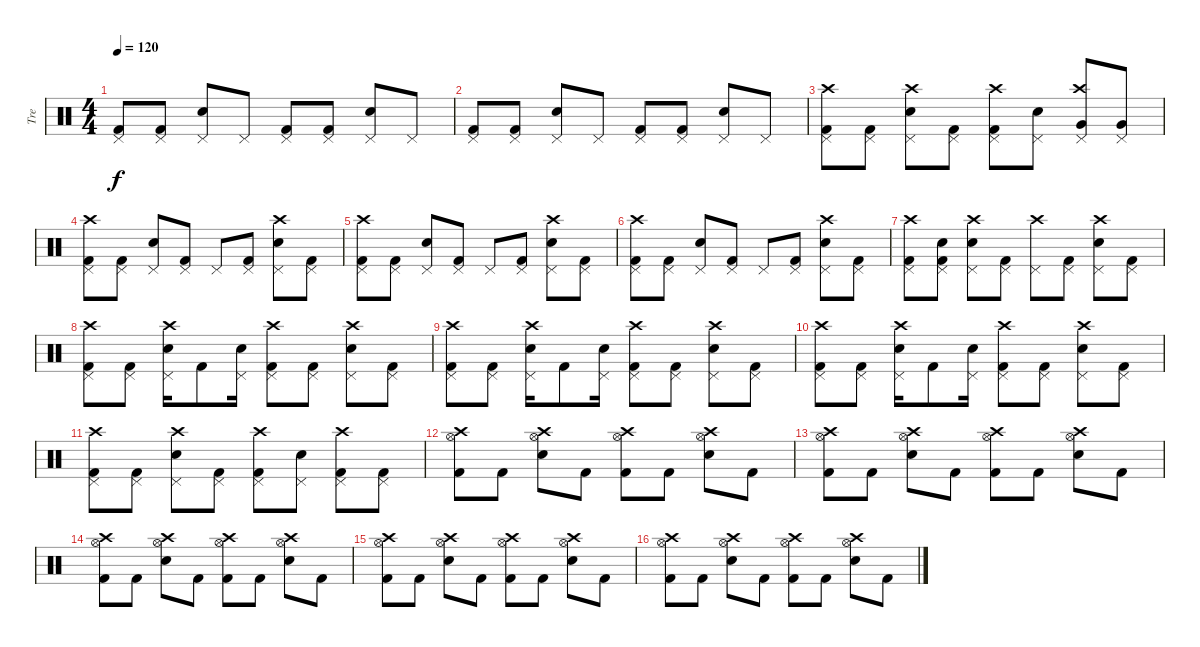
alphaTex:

\track ("Tre" "Tre") {instrument percussion}
\staff {score}
\articulation defaults
\ts (4 4)
\tempo 120
\clef neutral
\ks c
("Pedal Hi-Hat (hit)" "Kick (hit) 2").8{dy f} ("Pedal Hi-Hat (hit)" "Kick (hit) 2").8 ("Pedal Hi-Hat (hit)" "Electric Snare (hit)").8 "Pedal Hi-Hat (hit)".8 ("Pedal Hi-Hat (hit)" "Kick (hit) 2").8 ("Pedal Hi-Hat (hit)" "Kick (hit) 2").8 ("Pedal Hi-Hat (hit)" "Electric Snare (hit)").8 "Pedal Hi-Hat (hit)".8 |
("Pedal Hi-Hat (hit)" "Kick (hit) 2").8 ("Pedal Hi-Hat (hit)" "Kick (hit) 2").8 ("Pedal Hi-Hat (hit)" "Electric Snare (hit)").8 "Pedal Hi-Hat (hit)".8 ("Pedal Hi-Hat (hit)" "Kick (hit) 2").8 ("Pedal Hi-Hat (hit)" "Kick (hit) 2").8 ("Pedal Hi-Hat (hit)" "Electric Snare (hit)").8 "Pedal Hi-Hat (hit)".8 |
("Pedal Hi-Hat (hit)" "Kick (hit) 2" "Crash high (hit)").8 ("Pedal Hi-Hat (hit)" "Kick (hit) 2").8 ("Pedal Hi-Hat (hit)" "Electric Snare (hit)" "Crash high (hit)").8 ("Pedal Hi-Hat (hit)" "Kick (hit) 2").8 ("Pedal Hi-Hat (hit)" "Kick (hit) 2" "Crash high (hit)").8 ("Pedal Hi-Hat (hit)" "Electric Snare (hit)").8 ("Pedal Hi-Hat (hit)" "Very Low Tom (hit)" "Crash high (hit)").8 ("Pedal Hi-Hat (hit)" "Very Low Tom (hit)").8 |
("Pedal Hi-Hat (hit)" "Kick (hit) 2" "Crash high (hit)").8 ("Pedal Hi-Hat (hit)" "Kick (hit) 2").8 ("Pedal Hi-Hat (hit)" "Electric Snare (hit)").8 ("Pedal Hi-Hat (hit)" "Kick (hit) 2").8 "Pedal Hi-Hat (hit)".8 ("Pedal Hi-Hat (hit)" "Kick (hit) 2").8 ("Pedal Hi-Hat (hit)" "Electric Snare (hit)" "Crash high (hit)").8 ("Pedal Hi-Hat (hit)" "Kick (hit) 2").8 |
("Pedal Hi-Hat (hit)" "Kick (hit) 2" "Crash high (hit)").8 ("Pedal Hi-Hat (hit)" "Kick (hit) 2").8 ("Pedal Hi-Hat (hit)" "Electric Snare (hit)").8 ("Pedal Hi-Hat (hit)" "Kick (hit) 2").8 "Pedal Hi-Hat (hit)".8 ("Pedal Hi-Hat (hit)" "Kick (hit) 2").8 ("Pedal Hi-Hat (hit)" "Electric Snare (hit)" "Crash high (hit)").8 ("Pedal Hi-Hat (hit)" "Kick (hit) 2").8 |
("Pedal Hi-Hat (hit)" "Kick (hit) 2" "Crash high (hit)").8 ("Pedal Hi-Hat (hit)" "Kick (hit) 2").8 ("Pedal Hi-Hat (hit)" "Electric Snare (hit)").8 ("Pedal Hi-Hat (hit)" "Kick (hit) 2").8 "Pedal Hi-Hat (hit)".8 ("Pedal Hi-Hat (hit)" "Kick (hit) 2").8 ("Pedal Hi-Hat (hit)" "Electric Snare (hit)" "Crash high (hit)").8 ("Pedal Hi-Hat (hit)" "Kick (hit) 2").8 |
("Pedal Hi-Hat (hit)" "Kick (hit) 2" "Crash high (hit)").8 ("Pedal Hi-Hat (hit)" "Kick (hit) 2" "Snare (hit)").8 ("Pedal Hi-Hat (hit)" "Electric Snare (hit)" "Crash high (hit)").8 ("Pedal Hi-Hat (hit)" "Kick (hit) 2").8 ("Pedal Hi-Hat (hit)" "Crash high (hit)").8 ("Pedal Hi-Hat (hit)" "Kick (hit) 2").8 ("Pedal Hi-Hat (hit)" "Electric Snare (hit)" "Crash high (hit)").8 ("Pedal Hi-Hat (hit)" "Kick (hit) 2").8 |
("Pedal Hi-Hat (hit)" "Kick (hit) 2" "Crash high (hit)").8 ("Pedal Hi-Hat (hit)" "Kick (hit) 2").8 ("Pedal Hi-Hat (hit)" "Electric Snare (hit)" "Crash high (hit)").16 "Kick (hit) 2".8 ("Pedal Hi-Hat (hit)" "Electric Snare (hit)").16 ("Pedal Hi-Hat (hit)" "Kick (hit) 2" "Crash high (hit)").8 ("Pedal Hi-Hat (hit)" "Kick (hit) 2").8 ("Pedal Hi-Hat (hit)" "Electric Snare (hit)" "Crash high (hit)").8 ("Pedal Hi-Hat (hit)" "Kick (hit) 2").8 |
("Pedal Hi-Hat (hit)" "Kick (hit) 2" "Crash high (hit)").8 ("Pedal Hi-Hat (hit)" "Kick (hit) 2").8 ("Pedal Hi-Hat (hit)" "Electric Snare (hit)" "Crash high (hit)").16 "Kick (hit) 2".8 ("Pedal Hi-Hat (hit)" "Electric Snare (hit)").16 ("Pedal Hi-Hat (hit)" "Kick (hit) 2" "Crash high (hit)").8 ("Pedal Hi-Hat (hit)" "Kick (hit) 2").8 ("Pedal Hi-Hat (hit)" "Electric Snare (hit)" "Crash high (hit)").8 ("Pedal Hi-Hat (hit)" "Kick (hit) 2").8 |
("Pedal Hi-Hat (hit)" "Kick (hit) 2" "Crash high (hit)").8 ("Pedal Hi-Hat (hit)" "Kick (hit) 2").8 ("Pedal Hi-Hat (hit)" "Electric Snare (hit)" "Crash high (hit)").16 "Kick (hit) 2".8 ("Pedal Hi-Hat (hit)" "Electric Snare (hit)").16 ("Pedal Hi-Hat (hit)" "Kick (hit) 2" "Crash high (hit)").8 ("Pedal Hi-Hat (hit)" "Kick (hit) 2").8 ("Pedal Hi-Hat (hit)" "Electric Snare (hit)" "Crash high (hit)").8 ("Pedal Hi-Hat (hit)" "Kick (hit) 2").8 |
("Pedal Hi-Hat (hit)" "Kick (hit) 2" "Crash high (hit)").8 ("Pedal Hi-Hat (hit)" "Kick (hit) 2").8 ("Pedal Hi-Hat (hit)" "Electric Snare (hit)" "Crash high (hit)").8 ("Pedal Hi-Hat (hit)" "Kick (hit) 2").8 ("Pedal Hi-Hat (hit)" "Kick (hit) 2" "Crash high (hit)").8 ("Pedal Hi-Hat (hit)" "Electric Snare (hit)").8 ("Pedal Hi-Hat (hit)" "Kick (hit) 2" "Crash high (hit)").8 ("Pedal Hi-Hat (hit)" "Kick (hit) 2").8 |
("Crash high (hit)" "Kick (hit) 2" "Hi-Hat (open)").8 "Kick (hit) 2".8 ("Crash high (hit)" "Electric Snare (hit)" "Hi-Hat (open)").8 "Kick (hit) 2".8 ("Crash high (hit)" "Kick (hit) 2" "Hi-Hat (open)").8 "Kick (hit) 2".8 ("Crash high (hit)" "Electric Snare (hit)" "Hi-Hat (open)").8 "Kick (hit) 2".8 |
("Crash high (hit)" "Kick (hit) 2" "Hi-Hat (open)").8 "Kick (hit) 2".8 ("Crash high (hit)" "Electric Snare (hit)" "Hi-Hat (open)").8 "Kick (hit) 2".8 ("Crash high (hit)" "Kick (hit) 2" "Hi-Hat (open)").8 "Kick (hit) 2".8 ("Crash high (hit)" "Electric Snare (hit)" "Hi-Hat (open)").8 "Kick (hit) 2".8 |
("Crash high (hit)" "Kick (hit) 2" "Hi-Hat (open)").8 "Kick (hit) 2".8 ("Crash high (hit)" "Electric Snare (hit)" "Hi-Hat (open)").8 "Kick (hit) 2".8 ("Crash high (hit)" "Kick (hit) 2" "Hi-Hat (open)").8 "Kick (hit) 2".8 ("Crash high (hit)" "Electric Snare (hit)" "Hi-Hat (open)").8 "Kick (hit) 2".8 |
("Crash high (hit)" "Kick (hit) 2" "Hi-Hat (open)").8 "Kick (hit) 2".8 ("Crash high (hit)" "Electric Snare (hit)" "Hi-Hat (open)").8 "Kick (hit) 2".8 ("Crash high (hit)" "Kick (hit) 2" "Hi-Hat (open)").8 "Kick (hit) 2".8 ("Crash high (hit)" "Electric Snare (hit)" "Hi-Hat (open)").8 "Kick (hit) 2".8 |
("Crash high (hit)" "Kick (hit) 2" "Hi-Hat (open)").8 "Kick (hit) 2".8 ("Crash high (hit)" "Electric Snare (hit)" "Hi-Hat (open)").8 "Kick (hit) 2".8 ("Crash high (hit)" "Kick (hit) 2" "Hi-Hat (open)").8 "Kick (hit) 2".8 ("Crash high (hit)" "Electric Snare (hit)" "Hi-Hat (open)").8 "Kick (hit) 2".8
